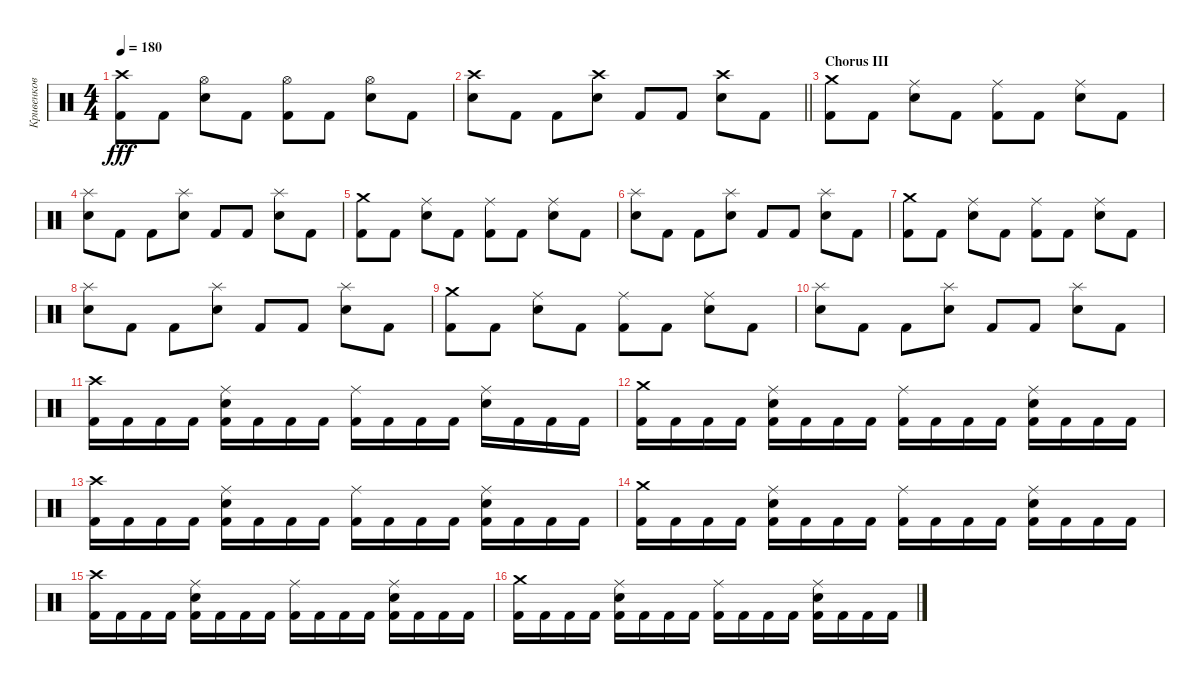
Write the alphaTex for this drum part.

\track ("Кривенков" "Кривенков") {instrument percussion}
\staff {score}
\articulation defaults
\ts (4 4)
\tempo 180
\clef neutral
\ks c
("Kick (hit) 2" "Crash high (hit)").8{dy fff} "Kick (hit) 2".8 ("Hi-Hat (open)" "Snare (hit) 2").8 "Kick (hit) 2".8 ("Kick (hit) 2" "Hi-Hat (open)").8 "Kick (hit) 2".8 ("Snare (hit) 2" "Hi-Hat (open)").8 "Kick (hit) 2".8 |
\barLineRight lightlight
("Crash high (hit)" "Snare (hit) 2").8 "Kick (hit) 2".8 "Kick (hit) 2".8 ("Crash high (hit)" "Snare (hit) 2").8 "Kick (hit) 2".8 "Kick (hit) 2".8 ("Snare (hit) 2" "Crash high (hit)").8 "Kick (hit) 2".8 |
\section ("" "Chorus III")
("Crash medium (hit)" "Kick (hit) 2").8 "Kick (hit) 2".8 ("Snare (hit) 2" "Ride (middle)").8 "Kick (hit) 2".8 ("Kick (hit) 2" "Ride (middle)").8 "Kick (hit) 2".8 ("Snare (hit) 2" "Ride (middle)").8 "Kick (hit) 2".8 |
("Snare (hit) 2" "Splash (hit)").8 "Kick (hit) 2".8 "Kick (hit) 2".8 ("Snare (hit) 2" "Splash (hit)").8 "Kick (hit) 2".8 "Kick (hit) 2".8 ("Snare (hit) 2" "Splash (hit)").8 "Kick (hit) 2".8 |
("Kick (hit) 2" "Crash medium (hit)").8 "Kick (hit) 2".8 ("Ride (middle)" "Snare (hit) 2").8 "Kick (hit) 2".8 ("Ride (middle)" "Kick (hit) 2").8 "Kick (hit) 2".8 ("Ride (middle)" "Snare (hit) 2").8 "Kick (hit) 2".8 |
("Splash (hit)" "Snare (hit) 2").8 "Kick (hit) 2".8 "Kick (hit) 2".8 ("Splash (hit)" "Snare (hit) 2").8 "Kick (hit) 2".8 "Kick (hit) 2".8 ("Snare (hit) 2" "Splash (hit)").8 "Kick (hit) 2".8 |
("Kick (hit) 2" "Crash medium (hit)").8 "Kick (hit) 2".8 ("Ride (middle)" "Snare (hit) 2").8 "Kick (hit) 2".8 ("Kick (hit) 2" "Ride (middle)").8 "Kick (hit) 2".8 ("Snare (hit) 2" "Ride (middle)").8 "Kick (hit) 2".8 |
("Splash (hit)" "Snare (hit) 2").8 "Kick (hit) 2".8 "Kick (hit) 2".8 ("Splash (hit)" "Snare (hit) 2").8 "Kick (hit) 2".8 "Kick (hit) 2".8 ("Snare (hit) 2" "Splash (hit)").8 "Kick (hit) 2".8 |
("Crash medium (hit)" "Kick (hit) 2").8 "Kick (hit) 2".8 ("Ride (middle)" "Snare (hit) 2").8 "Kick (hit) 2".8 ("Ride (middle)" "Kick (hit) 2").8 "Kick (hit) 2".8 ("Snare (hit) 2" "Ride (middle)").8 "Kick (hit) 2".8 |
("Splash (hit)" "Snare (hit) 2").8 "Kick (hit) 2".8 "Kick (hit) 2".8 ("Splash (hit)" "Snare (hit) 2").8 "Kick (hit) 2".8 "Kick (hit) 2".8 ("Splash (hit)" "Snare (hit) 2").8 "Kick (hit) 2".8 |
("Crash high (hit)" "Kick (hit) 2").16 "Kick (hit) 2".16 "Kick (hit) 2".16 "Kick (hit) 2".16 ("Kick (hit) 2" "Ride (middle)" "Snare (hit) 2").16 "Kick (hit) 2".16 "Kick (hit) 2".16 "Kick (hit) 2".16 ("Kick (hit) 2" "Ride (middle)").16 "Kick (hit) 2".16 "Kick (hit) 2".16 "Kick (hit) 2".16 ("Snare (hit) 2" "Ride (middle)").16 "Kick (hit) 2".16 "Kick (hit) 2".16 "Kick (hit) 2".16 |
("Kick (hit) 2" "Crash medium (hit)").16 "Kick (hit) 2".16 "Kick (hit) 2".16 "Kick (hit) 2".16 ("Snare (hit) 2" "Kick (hit) 2" "Ride (middle)").16 "Kick (hit) 2".16 "Kick (hit) 2".16 "Kick (hit) 2".16 ("Ride (middle)" "Kick (hit) 2").16 "Kick (hit) 2".16 "Kick (hit) 2".16 "Kick (hit) 2".16 ("Snare (hit) 2" "Ride (middle)" "Kick (hit) 2").16 "Kick (hit) 2".16 "Kick (hit) 2".16 "Kick (hit) 2".16 |
("Kick (hit) 2" "Crash high (hit)").16 "Kick (hit) 2".16 "Kick (hit) 2".16 "Kick (hit) 2".16 ("Ride (middle)" "Kick (hit) 2" "Snare (hit) 2").16 "Kick (hit) 2".16 "Kick (hit) 2".16 "Kick (hit) 2".16 ("Kick (hit) 2" "Ride (middle)").16 "Kick (hit) 2".16 "Kick (hit) 2".16 "Kick (hit) 2".16 ("Snare (hit) 2" "Kick (hit) 2" "Ride (middle)").16 "Kick (hit) 2".16 "Kick (hit) 2".16 "Kick (hit) 2".16 |
("Kick (hit) 2" "Crash medium (hit)").16 "Kick (hit) 2".16 "Kick (hit) 2".16 "Kick (hit) 2".16 ("Ride (middle)" "Kick (hit) 2" "Snare (hit) 2").16 "Kick (hit) 2".16 "Kick (hit) 2".16 "Kick (hit) 2".16 ("Kick (hit) 2" "Ride (middle)").16 "Kick (hit) 2".16 "Kick (hit) 2".16 "Kick (hit) 2".16 ("Snare (hit) 2" "Ride (middle)" "Kick (hit) 2").16 "Kick (hit) 2".16 "Kick (hit) 2".16 "Kick (hit) 2".16 |
("Crash high (hit)" "Kick (hit) 2").16 "Kick (hit) 2".16 "Kick (hit) 2".16 "Kick (hit) 2".16 ("Snare (hit) 2" "Kick (hit) 2" "Ride (middle)").16 "Kick (hit) 2".16 "Kick (hit) 2".16 "Kick (hit) 2".16 ("Kick (hit) 2" "Ride (middle)").16 "Kick (hit) 2".16 "Kick (hit) 2".16 "Kick (hit) 2".16 ("Snare (hit) 2" "Ride (middle)" "Kick (hit) 2").16 "Kick (hit) 2".16 "Kick (hit) 2".16 "Kick (hit) 2".16 |
("Kick (hit) 2" "Crash medium (hit)").16 "Kick (hit) 2".16 "Kick (hit) 2".16 "Kick (hit) 2".16 ("Kick (hit) 2" "Ride (middle)" "Snare (hit) 2").16 "Kick (hit) 2".16 "Kick (hit) 2".16 "Kick (hit) 2".16 ("Ride (middle)" "Kick (hit) 2").16 "Kick (hit) 2".16 "Kick (hit) 2".16 "Kick (hit) 2".16 ("Ride (middle)" "Kick (hit) 2" "Snare (hit) 2").16 "Kick (hit) 2".16 "Kick (hit) 2".16 "Kick (hit) 2".16
